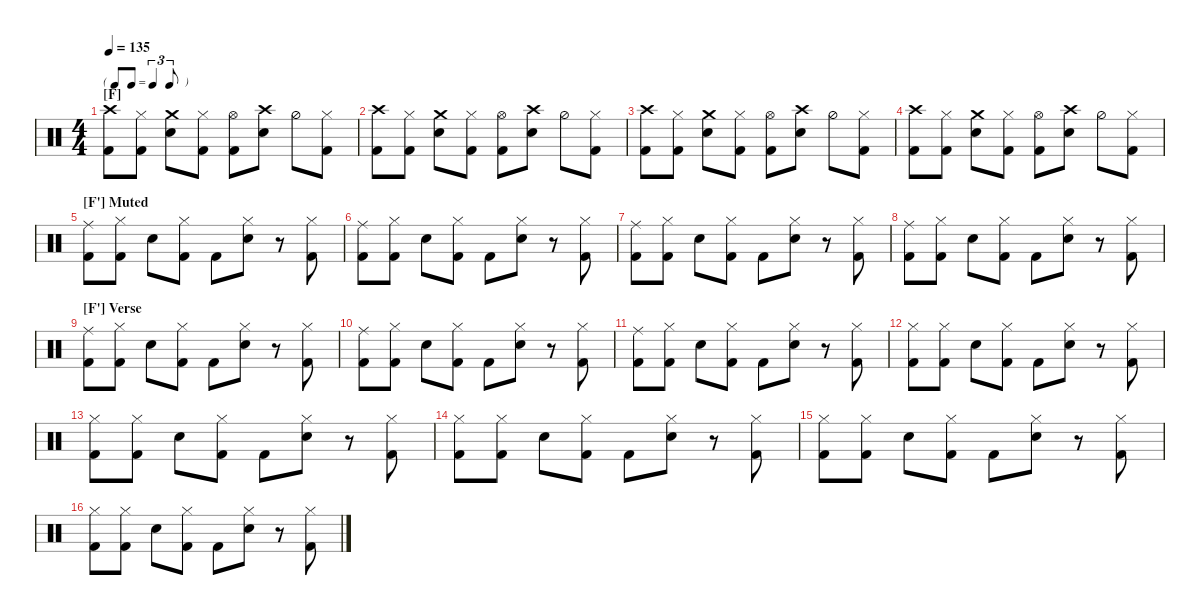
\defaultSystemsLayout 4
\hideDynamics
\bracketExtendMode nobrackets
\singleTrackTrackNamePolicy hidden
\multiTrackTrackNamePolicy hidden
\firstSystemTrackNameMode fullname
\firstSystemTrackNameOrientation horizontal
\otherSystemsTrackNameOrientation horizontal
\track ("Drum" "Drums") {instrument percussion}
\staff {score}
\articulation defaults
\ts (4 4)
\tf triplet8th
\section ("F" "")
\scale
0.275862
\tempo 135
\accidentals auto
\clef neutral
\ottava regular
\simile none
\scale
0.277108
\ks c
("Kick (hit) 2" "Crash high (hit)").8{dy f beam Down} ("Kick (hit) 2" "Hi-Hat (closed)").8{beam Down} ("Snare (hit) 2" "Crash medium (hit)").8{beam Down} ("Kick (hit) 2" "Hi-Hat (closed)").8{beam Down} ("Kick (hit) 2" "Hi-Hat (open)").8{beam Down} ("Snare (hit) 2" "Crash high (hit)").8{beam Down} "Hi-Hat (half)".8{beam Down} ("Kick (hit) 2" "Hi-Hat (closed)").8{beam Down} |
\scale
0.241379
\scale
0.240964 ("Kick (hit) 2" "Crash high (hit)").8{beam Down} ("Kick (hit) 2" "Hi-Hat (closed)").8{beam Down} ("Snare (hit) 2" "Crash medium (hit)").8{beam Down} ("Kick (hit) 2" "Hi-Hat (closed)").8{beam Down} ("Kick (hit) 2" "Hi-Hat (open)").8{beam Down} ("Snare (hit) 2" "Crash high (hit)").8{beam Down} "Hi-Hat (half)".8{beam Down} ("Kick (hit) 2" "Hi-Hat (closed)").8{beam Down} |
\scale
0.241379
\scale
0.240964 ("Kick (hit) 2" "Crash high (hit)").8{beam Down} ("Kick (hit) 2" "Hi-Hat (closed)").8{beam Down} ("Snare (hit) 2" "Crash medium (hit)").8{beam Down} ("Kick (hit) 2" "Hi-Hat (closed)").8{beam Down} ("Kick (hit) 2" "Hi-Hat (open)").8{beam Down} ("Snare (hit) 2" "Crash high (hit)").8{beam Down} "Hi-Hat (half)".8{beam Down} ("Kick (hit) 2" "Hi-Hat (closed)").8{beam Down} |
\scale
0.241379
\scale
0.240964 ("Kick (hit) 2" "Crash high (hit)").8{beam Down} ("Kick (hit) 2" "Hi-Hat (closed)").8{beam Down} ("Snare (hit) 2" "Crash medium (hit)").8{beam Down} ("Kick (hit) 2" "Hi-Hat (closed)").8{beam Down} ("Kick (hit) 2" "Hi-Hat (open)").8{beam Down} ("Snare (hit) 2" "Crash high (hit)").8{beam Down} "Hi-Hat (half)".8{beam Down} ("Kick (hit) 2" "Hi-Hat (closed)").8{beam Down} |
\section ("F'" "Muted")
\scale
0.25
\scale
0.25 ("Kick (hit) 2" "Ride (middle)").8{beam Down} ("Kick (hit) 2" "Hi-Hat (closed)").8{beam Down} "Snare (hit) 2".8{beam Down} ("Kick (hit) 2" "Hi-Hat (closed)").8{beam Down} "Kick (hit) 2".8{beam Down} ("Snare (hit) 2" "Hi-Hat (closed)").8{beam Down} r.8{beam Down} ("Kick (hit) 2" "Hi-Hat (closed)").8{beam Down} |
\scale
0.25
\scale
0.25 ("Kick (hit) 2" "Ride (middle)").8{beam Down} ("Kick (hit) 2" "Hi-Hat (closed)").8{beam Down} "Snare (hit) 2".8{beam Down} ("Kick (hit) 2" "Hi-Hat (closed)").8{beam Down} "Kick (hit) 2".8{beam Down} ("Snare (hit) 2" "Hi-Hat (closed)").8{beam Down} r.8{beam Down} ("Kick (hit) 2" "Hi-Hat (closed)").8{beam Down} |
\scale
0.25
\scale
0.25 ("Kick (hit) 2" "Ride (middle)").8{beam Down} ("Kick (hit) 2" "Hi-Hat (closed)").8{beam Down} "Snare (hit) 2".8{beam Down} ("Kick (hit) 2" "Hi-Hat (closed)").8{beam Down} "Kick (hit) 2".8{beam Down} ("Snare (hit) 2" "Hi-Hat (closed)").8{beam Down} r.8{beam Down} ("Kick (hit) 2" "Hi-Hat (closed)").8{beam Down} |
\scale
0.25
\scale
0.25 ("Kick (hit) 2" "Ride (middle)").8{beam Down} ("Kick (hit) 2" "Hi-Hat (closed)").8{beam Down} "Snare (hit) 2".8{beam Down} ("Kick (hit) 2" "Hi-Hat (closed)").8{beam Down} "Kick (hit) 2".8{beam Down} ("Snare (hit) 2" "Hi-Hat (closed)").8{beam Down} r.8{beam Down} ("Kick (hit) 2" "Hi-Hat (closed)").8{beam Down} |
\section ("F'" "Verse")
\scale
0.376147
\scale
0.25 ("Kick (hit) 2" "Ride (middle)").8{beam Down} ("Kick (hit) 2" "Hi-Hat (closed)").8{beam Down} "Snare (hit) 2".8{beam Down} ("Kick (hit) 2" "Hi-Hat (closed)").8{beam Down} "Kick (hit) 2".8{beam Down} ("Snare (hit) 2" "Hi-Hat (closed)").8{beam Down} r.8{beam Down} ("Kick (hit) 2" "Hi-Hat (closed)").8{beam Down} |
\scale
0.238532
\scale
0.25 ("Kick (hit) 2" "Ride (middle)").8{beam Down} ("Kick (hit) 2" "Hi-Hat (closed)").8{beam Down} "Snare (hit) 2".8{beam Down} ("Kick (hit) 2" "Hi-Hat (closed)").8{beam Down} "Kick (hit) 2".8{beam Down} ("Snare (hit) 2" "Hi-Hat (closed)").8{beam Down} r.8{beam Down} ("Kick (hit) 2" "Hi-Hat (closed)").8{beam Down} |
\scale
0.192661
\scale
0.25 ("Kick (hit) 2" "Ride (middle)").8{beam Down} ("Kick (hit) 2" "Hi-Hat (closed)").8{beam Down} "Snare (hit) 2".8{beam Down} ("Kick (hit) 2" "Hi-Hat (closed)").8{beam Down} "Kick (hit) 2".8{beam Down} ("Snare (hit) 2" "Hi-Hat (closed)").8{beam Down} r.8{beam Down} ("Kick (hit) 2" "Hi-Hat (closed)").8{beam Down} |
\scale
0.192661
\scale
0.25 ("Kick (hit) 2" "Hi-Hat (closed)").8{beam Down} ("Kick (hit) 2" "Hi-Hat (closed)").8{beam Down} "Snare (hit) 2".8{beam Down} ("Kick (hit) 2" "Hi-Hat (closed)").8{beam Down} "Kick (hit) 2".8{beam Down} ("Snare (hit) 2" "Hi-Hat (closed)").8{beam Down} r.8{beam Down} ("Kick (hit) 2" "Hi-Hat (closed)").8{beam Down} |
\scale
0.238636
\scale
0.25 ("Kick (hit) 2" "Hi-Hat (closed)").8{beam Down} ("Kick (hit) 2" "Hi-Hat (closed)").8{beam Down} "Snare (hit) 2".8{beam Down} ("Kick (hit) 2" "Hi-Hat (closed)").8{beam Down} "Kick (hit) 2".8{beam Down} ("Snare (hit) 2" "Hi-Hat (closed)").8{beam Down} r.8{beam Down} ("Kick (hit) 2" "Hi-Hat (closed)").8{beam Down} |
\scale
0.284091
\scale
0.25 ("Kick (hit) 2" "Hi-Hat (closed)").8{beam Down} ("Kick (hit) 2" "Hi-Hat (closed)").8{beam Down} "Snare (hit) 2".8{beam Down} ("Kick (hit) 2" "Hi-Hat (closed)").8{beam Down} "Kick (hit) 2".8{beam Down} ("Snare (hit) 2" "Hi-Hat (closed)").8{beam Down} r.8{beam Down} ("Kick (hit) 2" "Hi-Hat (closed)").8{beam Down} |
\scale
0.238636
\scale
0.25 ("Kick (hit) 2" "Hi-Hat (closed)").8{beam Down} ("Kick (hit) 2" "Hi-Hat (closed)").8{beam Down} "Snare (hit) 2".8{beam Down} ("Kick (hit) 2" "Hi-Hat (closed)").8{beam Down} "Kick (hit) 2".8{beam Down} ("Snare (hit) 2" "Hi-Hat (closed)").8{beam Down} r.8{beam Down} ("Kick (hit) 2" "Hi-Hat (closed)").8{beam Down} |
\scale
0.238636
\scale
0.25 ("Kick (hit) 2" "Hi-Hat (closed)").8{beam Down} ("Kick (hit) 2" "Hi-Hat (closed)").8{beam Down} "Snare (hit) 2".8{beam Down} ("Kick (hit) 2" "Hi-Hat (closed)").8{beam Down} "Kick (hit) 2".8{beam Down} ("Snare (hit) 2" "Hi-Hat (closed)").8{beam Down} r.8{beam Down} ("Kick (hit) 2" "Hi-Hat (closed)").8{beam Down}
